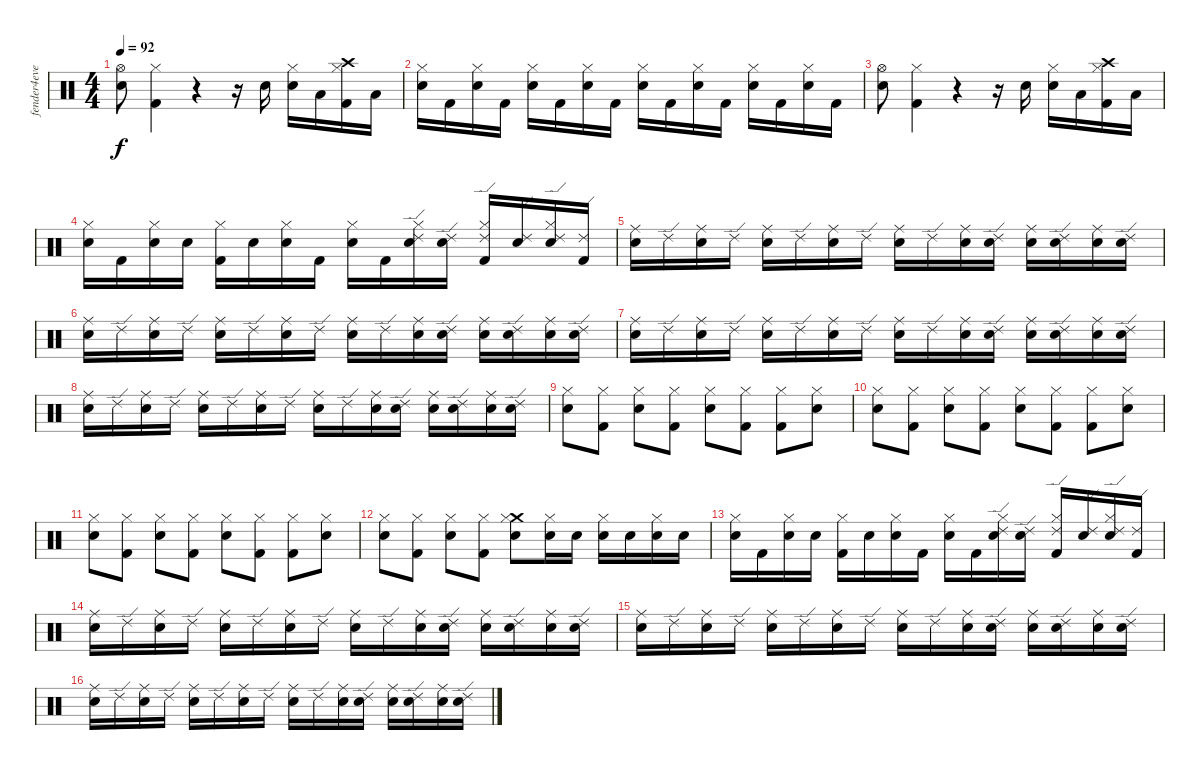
\track ("fender4ever@hotmail.com" "fender4eve") {instrument percussion}
\staff {score}
\articulation defaults
\ts (4 4)
\tempo 92
\clef neutral
\ks c
("Electric Snare (hit)" "Hi-Hat (open)").8{dy f} ("Kick (hit) 2" "Hi-Hat (closed)").4 r.4 r.16 "Electric Snare (hit)".16 ("Electric Snare (hit)" "Hi-Hat (closed)").16 "Low Floor Tom (hit)".16 ("Kick (hit) 2" "Crash high (hit)" "Hi-Hat (closed)").16 "Low Floor Tom (hit)".16 |
("Electric Snare (hit)" "Hi-Hat (closed)").16 "Kick (hit) 2".16 ("Electric Snare (hit)" "Hi-Hat (closed)").16 "Kick (hit) 2".16 ("Electric Snare (hit)" "Hi-Hat (closed)").16 "Kick (hit) 2".16 ("Electric Snare (hit)" "Hi-Hat (closed)").16 "Kick (hit) 2".16 ("Electric Snare (hit)" "Hi-Hat (closed)").16 "Kick (hit) 2".16 ("Electric Snare (hit)" "Hi-Hat (closed)").16 "Kick (hit) 2".16 ("Electric Snare (hit)" "Hi-Hat (closed)").16 "Kick (hit) 2".16 ("Electric Snare (hit)" "Hi-Hat (closed)").16 "Kick (hit) 2".16 |
("Electric Snare (hit)" "Hi-Hat (open)").8 ("Kick (hit) 2" "Hi-Hat (closed)").4 r.4 r.16 "Electric Snare (hit)".16 ("Electric Snare (hit)" "Hi-Hat (closed)").16 "Low Floor Tom (hit)".16 ("Kick (hit) 2" "Crash high (hit)" "Hi-Hat (closed)").16 "Low Floor Tom (hit)".16 |
("Electric Snare (hit)" "Hi-Hat (closed)").16 "Kick (hit) 2".16 ("Electric Snare (hit)" "Hi-Hat (closed)").16 "Electric Snare (hit)".16 ("Kick (hit) 2" "Hi-Hat (closed)").16 "Electric Snare (hit)".16 ("Electric Snare (hit)" "Hi-Hat (closed)").16 "Kick (hit) 2".16 ("Electric Snare (hit)" "Hi-Hat (closed)").16 "Kick (hit) 2".16 ("Electric Snare (hit)" "Ride (edge) 2" "Hi-Hat (closed)").16 ("Electric Snare (hit)" "Ride (edge) 2").16 ("Kick (hit) 2" "Ride (edge) 2" "Hi-Hat (closed)").16 ("Electric Snare (hit)" "Ride (edge) 2").16 ("Electric Snare (hit)" "Ride (edge) 2" "Hi-Hat (closed)").16 ("Kick (hit) 2" "Ride (edge) 2").16 |
("Electric Snare (hit)" "Ride (middle)").16 "Ride (edge) 2".16 ("Electric Snare (hit)" "Ride (middle)").16 "Ride (edge) 2".16 ("Electric Snare (hit)" "Ride (middle)").16 "Ride (edge) 2".16 ("Electric Snare (hit)" "Ride (middle)").16 "Ride (edge) 2".16 ("Electric Snare (hit)" "Ride (middle)").16 "Ride (edge) 2".16 ("Electric Snare (hit)" "Ride (middle)").16 ("Electric Snare (hit)" "Ride (edge) 2").16 ("Electric Snare (hit)" "Ride (middle)").16 ("Electric Snare (hit)" "Ride (edge) 2").16 ("Electric Snare (hit)" "Ride (middle)").16 ("Electric Snare (hit)" "Ride (edge) 2").16 |
("Electric Snare (hit)" "Ride (middle)").16 "Ride (edge) 2".16 ("Electric Snare (hit)" "Ride (middle)").16 "Ride (edge) 2".16 ("Electric Snare (hit)" "Ride (middle)").16 "Ride (edge) 2".16 ("Electric Snare (hit)" "Ride (middle)").16 "Ride (edge) 2".16 ("Electric Snare (hit)" "Ride (middle)").16 "Ride (edge) 2".16 ("Electric Snare (hit)" "Ride (middle)").16 ("Electric Snare (hit)" "Ride (edge) 2").16 ("Electric Snare (hit)" "Ride (middle)").16 ("Electric Snare (hit)" "Ride (edge) 2").16 ("Electric Snare (hit)" "Ride (middle)").16 ("Electric Snare (hit)" "Ride (edge) 2").16 |
("Electric Snare (hit)" "Ride (middle)").16 "Ride (edge) 2".16 ("Electric Snare (hit)" "Ride (middle)").16 "Ride (edge) 2".16 ("Electric Snare (hit)" "Ride (middle)").16 "Ride (edge) 2".16 ("Electric Snare (hit)" "Ride (middle)").16 "Ride (edge) 2".16 ("Electric Snare (hit)" "Ride (middle)").16 "Ride (edge) 2".16 ("Electric Snare (hit)" "Ride (middle)").16 ("Electric Snare (hit)" "Ride (edge) 2").16 ("Electric Snare (hit)" "Ride (middle)").16 ("Electric Snare (hit)" "Ride (edge) 2").16 ("Electric Snare (hit)" "Ride (middle)").16 ("Electric Snare (hit)" "Ride (edge) 2").16 |
("Electric Snare (hit)" "Ride (middle)").16 "Ride (edge) 2".16 ("Electric Snare (hit)" "Ride (middle)").16 "Ride (edge) 2".16 ("Electric Snare (hit)" "Ride (middle)").16 "Ride (edge) 2".16 ("Electric Snare (hit)" "Ride (middle)").16 "Ride (edge) 2".16 ("Electric Snare (hit)" "Ride (middle)").16 "Ride (edge) 2".16 ("Electric Snare (hit)" "Ride (middle)").16 ("Electric Snare (hit)" "Ride (edge) 2").16 ("Electric Snare (hit)" "Ride (middle)").16 ("Electric Snare (hit)" "Ride (edge) 2").16 ("Electric Snare (hit)" "Ride (middle)").16 ("Electric Snare (hit)" "Ride (edge) 2").16 |
("Electric Snare (hit)" "Hi-Hat (closed)").8 ("Kick (hit) 2" "Hi-Hat (closed)").8 ("Electric Snare (hit)" "Hi-Hat (closed)").8 ("Kick (hit) 2" "Hi-Hat (closed)").8 ("Electric Snare (hit)" "Hi-Hat (closed)").8 ("Kick (hit) 2" "Hi-Hat (closed)").8 ("Kick (hit) 2" "Hi-Hat (closed)").8 ("Electric Snare (hit)" "Hi-Hat (closed)").8 |
("Electric Snare (hit)" "Hi-Hat (closed)").8 ("Kick (hit) 2" "Hi-Hat (closed)").8 ("Electric Snare (hit)" "Hi-Hat (closed)").8 ("Kick (hit) 2" "Hi-Hat (closed)").8 ("Electric Snare (hit)" "Hi-Hat (closed)").8 ("Kick (hit) 2" "Hi-Hat (closed)").8 ("Kick (hit) 2" "Hi-Hat (closed)").8 ("Electric Snare (hit)" "Hi-Hat (closed)").8 |
("Electric Snare (hit)" "Hi-Hat (closed)").8 ("Kick (hit) 2" "Hi-Hat (closed)").8 ("Electric Snare (hit)" "Hi-Hat (closed)").8 ("Kick (hit) 2" "Hi-Hat (closed)").8 ("Electric Snare (hit)" "Hi-Hat (closed)").8 ("Kick (hit) 2" "Hi-Hat (closed)").8 ("Kick (hit) 2" "Hi-Hat (closed)").8 ("Electric Snare (hit)" "Hi-Hat (closed)").8 |
("Electric Snare (hit)" "Hi-Hat (closed)").8 ("Kick (hit) 2" "Hi-Hat (closed)").8 ("Electric Snare (hit)" "Hi-Hat (closed)").8 ("Kick (hit) 2" "Hi-Hat (closed)").8 ("Electric Snare (hit)" "Crash medium (hit)" "Hi-Hat (closed)").8 ("Electric Snare (hit)" "Hi-Hat (closed)").16 "Electric Snare (hit)".16 ("Electric Snare (hit)" "Hi-Hat (closed)").16 "Electric Snare (hit)".16 ("Electric Snare (hit)" "Hi-Hat (closed)").16 "Electric Snare (hit)".16 |
("Electric Snare (hit)" "Hi-Hat (closed)").16 "Kick (hit) 2".16 ("Electric Snare (hit)" "Hi-Hat (closed)").16 "Electric Snare (hit)".16 ("Kick (hit) 2" "Hi-Hat (closed)").16 "Electric Snare (hit)".16 ("Electric Snare (hit)" "Hi-Hat (closed)").16 "Kick (hit) 2".16 ("Electric Snare (hit)" "Hi-Hat (closed)").16 "Kick (hit) 2".16 ("Electric Snare (hit)" "Ride (edge) 2" "Hi-Hat (closed)").16 ("Electric Snare (hit)" "Ride (edge) 2").16 ("Kick (hit) 2" "Ride (edge) 2" "Hi-Hat (closed)").16 ("Electric Snare (hit)" "Ride (edge) 2").16 ("Electric Snare (hit)" "Ride (edge) 2" "Hi-Hat (closed)").16 ("Kick (hit) 2" "Ride (edge) 2").16 |
("Electric Snare (hit)" "Ride (middle)").16 "Ride (edge) 2".16 ("Electric Snare (hit)" "Ride (middle)").16 "Ride (edge) 2".16 ("Electric Snare (hit)" "Ride (middle)").16 "Ride (edge) 2".16 ("Electric Snare (hit)" "Ride (middle)").16 "Ride (edge) 2".16 ("Electric Snare (hit)" "Ride (middle)").16 "Ride (edge) 2".16 ("Electric Snare (hit)" "Ride (middle)").16 ("Electric Snare (hit)" "Ride (edge) 2").16 ("Electric Snare (hit)" "Ride (middle)").16 ("Electric Snare (hit)" "Ride (edge) 2").16 ("Electric Snare (hit)" "Ride (middle)").16 ("Electric Snare (hit)" "Ride (edge) 2").16 |
("Electric Snare (hit)" "Ride (middle)").16 "Ride (edge) 2".16 ("Electric Snare (hit)" "Ride (middle)").16 "Ride (edge) 2".16 ("Electric Snare (hit)" "Ride (middle)").16 "Ride (edge) 2".16 ("Electric Snare (hit)" "Ride (middle)").16 "Ride (edge) 2".16 ("Electric Snare (hit)" "Ride (middle)").16 "Ride (edge) 2".16 ("Electric Snare (hit)" "Ride (middle)").16 ("Electric Snare (hit)" "Ride (edge) 2").16 ("Electric Snare (hit)" "Ride (middle)").16 ("Electric Snare (hit)" "Ride (edge) 2").16 ("Electric Snare (hit)" "Ride (middle)").16 ("Electric Snare (hit)" "Ride (edge) 2").16 |
("Electric Snare (hit)" "Ride (middle)").16 "Ride (edge) 2".16 ("Electric Snare (hit)" "Ride (middle)").16 "Ride (edge) 2".16 ("Electric Snare (hit)" "Ride (middle)").16 "Ride (edge) 2".16 ("Electric Snare (hit)" "Ride (middle)").16 "Ride (edge) 2".16 ("Electric Snare (hit)" "Ride (middle)").16 "Ride (edge) 2".16 ("Electric Snare (hit)" "Ride (middle)").16 ("Electric Snare (hit)" "Ride (edge) 2").16 ("Electric Snare (hit)" "Ride (middle)").16 ("Electric Snare (hit)" "Ride (edge) 2").16 ("Electric Snare (hit)" "Ride (middle)").16 ("Electric Snare (hit)" "Ride (edge) 2").16
